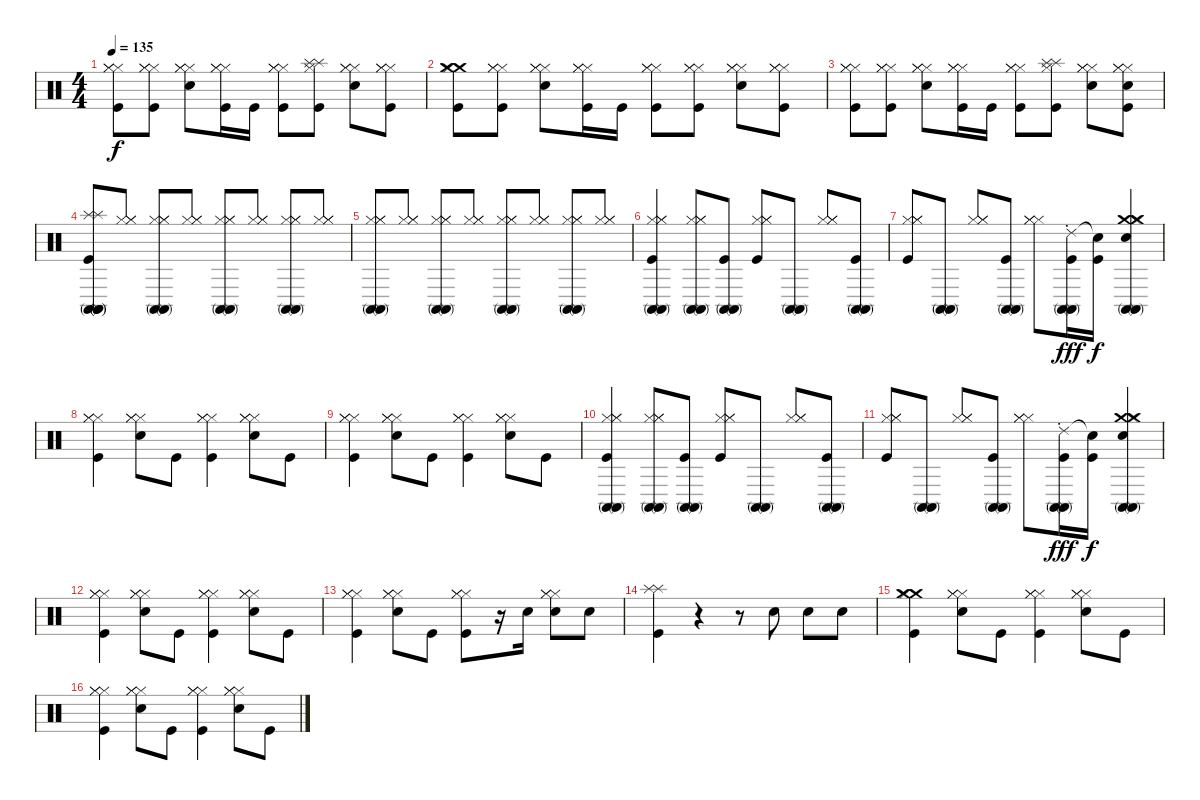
\track "" {instrument percussion}
\staff {score}
\articulation defaults
\ts (4 4)
\tempo 135
\clef neutral
\ks c
("Hi-Hat (closed)" "Hi-Hat (closed)" "Hi-Hat (closed)" "Kick (hit)").8{dy f} ("Hi-Hat (closed)" "Hi-Hat (closed)" "Hi-Hat (closed)" "Kick (hit)").8 ("Hi-Hat (closed)" "Hi-Hat (closed)" "Hi-Hat (closed)" "Metronome (bell)").8 ("Hi-Hat (closed)" "Hi-Hat (closed)" "Hi-Hat (closed)" "Kick (hit)").16 "Kick (hit)".16 ("Hi-Hat (closed)" "Hi-Hat (closed)" "Hi-Hat (closed)" "Kick (hit)").8 ("Splash (hit)" "Splash (hit)" "Hi-Hat (closed)" "Kick (hit)").8 ("Hi-Hat (closed)" "Hi-Hat (closed)" "Hi-Hat (closed)" "Metronome (bell)").8 ("Hi-Hat (closed)" "Hi-Hat (closed)" "Hi-Hat (closed)" "Kick (hit)").8 |
("Crash medium (hit)" "Crash medium (hit)" "Hi-Hat (closed)" "Kick (hit)").8 ("Hi-Hat (closed)" "Hi-Hat (closed)" "Hi-Hat (closed)" "Kick (hit)").8 ("Hi-Hat (closed)" "Hi-Hat (closed)" "Hi-Hat (closed)" "Metronome (bell)").8 ("Hi-Hat (closed)" "Hi-Hat (closed)" "Hi-Hat (closed)" "Kick (hit)").16 "Kick (hit)".16 ("Hi-Hat (closed)" "Hi-Hat (closed)" "Hi-Hat (closed)" "Kick (hit)").8 ("Hi-Hat (closed)" "Hi-Hat (closed)" "Hi-Hat (closed)" "Kick (hit)").8 ("Hi-Hat (closed)" "Hi-Hat (closed)" "Hi-Hat (closed)" "Metronome (bell)").8 ("Hi-Hat (closed)" "Hi-Hat (closed)" "Hi-Hat (closed)" "Kick (hit)").8 |
("Hi-Hat (closed)" "Hi-Hat (closed)" "Hi-Hat (closed)" "Kick (hit)").8 ("Hi-Hat (closed)" "Hi-Hat (closed)" "Hi-Hat (closed)" "Kick (hit)").8 ("Hi-Hat (closed)" "Hi-Hat (closed)" "Hi-Hat (closed)" "Metronome (bell)").8 ("Hi-Hat (closed)" "Hi-Hat (closed)" "Hi-Hat (closed)" "Kick (hit)").16 "Kick (hit)".16 ("Hi-Hat (closed)" "Hi-Hat (closed)" "Hi-Hat (closed)" "Kick (hit)").8 ("Splash (hit)" "Splash (hit)" "Hi-Hat (closed)" "Kick (hit)").8 ("Hi-Hat (closed)" "Hi-Hat (closed)" "Hi-Hat (closed)" "Metronome (bell)").8 ("Hi-Hat (closed)" "Hi-Hat (closed)" "Hi-Hat (closed)" "Metronome (bell)" "Kick (hit)").8 |
("Splash (hit)" "Splash (hit)" "Conga high (mute)" "Conga high (mute)" "Conga high (mute)" "Kick (hit)").8 ("Hi-Hat (closed)" "Hi-Hat (closed)" "Hi-Hat (closed)").8 ("Hi-Hat (closed)" "Hi-Hat (closed)" "Hi-Hat (closed)" "Conga high (mute)" "Conga high (mute)").8 ("Hi-Hat (closed)" "Hi-Hat (closed)" "Hi-Hat (closed)").8 ("Hi-Hat (closed)" "Hi-Hat (closed)" "Hi-Hat (closed)" "Conga high (mute)" "Conga high (mute)").8 ("Hi-Hat (closed)" "Hi-Hat (closed)" "Hi-Hat (closed)").8 ("Hi-Hat (closed)" "Hi-Hat (closed)" "Hi-Hat (closed)" "Conga high (mute)" "Conga high (mute)").8 ("Hi-Hat (closed)" "Hi-Hat (closed)" "Hi-Hat (closed)").8 |
("Hi-Hat (closed)" "Hi-Hat (closed)" "Hi-Hat (closed)" "Conga high (mute)" "Conga high (mute)").8 ("Hi-Hat (closed)" "Hi-Hat (closed)" "Hi-Hat (closed)").8 ("Hi-Hat (closed)" "Hi-Hat (closed)" "Hi-Hat (closed)" "Conga high (mute)" "Conga high (mute)").8 ("Hi-Hat (closed)" "Hi-Hat (closed)" "Hi-Hat (closed)").8 ("Hi-Hat (closed)" "Hi-Hat (closed)" "Hi-Hat (closed)" "Conga high (mute)" "Conga high (mute)").8 ("Hi-Hat (closed)" "Hi-Hat (closed)" "Hi-Hat (closed)").8 ("Hi-Hat (closed)" "Hi-Hat (closed)" "Hi-Hat (closed)" "Conga high (mute)" "Conga high (mute)").8 ("Hi-Hat (closed)" "Hi-Hat (closed)" "Hi-Hat (closed)").8 |
("Hi-Hat (closed)" "Hi-Hat (closed)" "Hi-Hat (closed)" "Conga high (mute)" "Conga high (mute)" "Kick (hit)").4 ("Hi-Hat (closed)" "Hi-Hat (closed)" "Hi-Hat (closed)" "Conga high (mute)" "Conga high (mute)").8 ("Conga high (mute)" "Conga high (mute)" "Kick (hit)").8 ("Hi-Hat (closed)" "Hi-Hat (closed)" "Hi-Hat (closed)" "Kick (hit)").8 ("Conga high (mute)" "Conga high (mute)").8 ("Hi-Hat (closed)" "Hi-Hat (closed)" "Hi-Hat (closed)").8 ("Conga high (mute)" "Conga high (mute)" "Kick (hit)").8 |
("Hi-Hat (closed)" "Hi-Hat (closed)" "Hi-Hat (closed)" "Kick (hit)").8 ("Conga high (mute)" "Conga high (mute)").8 ("Hi-Hat (closed)" "Hi-Hat (closed)" "Hi-Hat (closed)").8 ("Conga high (mute)" "Conga high (mute)" "Kick (hit)").8 ("Hi-Hat (closed)" "Hi-Hat (closed)" "Hi-Hat (closed)").8 ("Ride (choke) 2" "Conga high (mute)" "Conga high (mute)" "Kick (hit)").16{dy fff} ("Snare (hit)"{t} "Kick (hit)").16{dy f} ("Crash medium (hit)" "Crash medium (hit)" "Hi-Hat (closed)" "Metronome (bell)" "Conga high (mute)" "Conga high (mute)").4 |
("Hi-Hat (closed)" "Hi-Hat (closed)" "Hi-Hat (closed)" "Kick (hit)").4 ("Hi-Hat (closed)" "Hi-Hat (closed)" "Hi-Hat (closed)" "Metronome (bell)").8 "Kick (hit)".8 ("Hi-Hat (closed)" "Hi-Hat (closed)" "Hi-Hat (closed)" "Kick (hit)").4 ("Hi-Hat (closed)" "Hi-Hat (closed)" "Hi-Hat (closed)" "Metronome (bell)").8 "Kick (hit)".8 |
("Hi-Hat (closed)" "Hi-Hat (closed)" "Hi-Hat (closed)" "Kick (hit)").4 ("Hi-Hat (closed)" "Hi-Hat (closed)" "Hi-Hat (closed)" "Metronome (bell)").8 "Kick (hit)".8 ("Hi-Hat (closed)" "Hi-Hat (closed)" "Hi-Hat (closed)" "Kick (hit)").4 ("Hi-Hat (closed)" "Hi-Hat (closed)" "Hi-Hat (closed)" "Metronome (bell)").8 "Kick (hit)".8 |
("Hi-Hat (closed)" "Hi-Hat (closed)" "Hi-Hat (closed)" "Conga high (mute)" "Conga high (mute)" "Kick (hit)").4 ("Hi-Hat (closed)" "Hi-Hat (closed)" "Hi-Hat (closed)" "Conga high (mute)" "Conga high (mute)").8 ("Conga high (mute)" "Conga high (mute)" "Kick (hit)").8 ("Hi-Hat (closed)" "Hi-Hat (closed)" "Hi-Hat (closed)" "Kick (hit)").8 ("Conga high (mute)" "Conga high (mute)").8 ("Hi-Hat (closed)" "Hi-Hat (closed)" "Hi-Hat (closed)").8 ("Conga high (mute)" "Conga high (mute)" "Kick (hit)").8 |
("Hi-Hat (closed)" "Hi-Hat (closed)" "Hi-Hat (closed)" "Kick (hit)").8 ("Conga high (mute)" "Conga high (mute)").8 ("Hi-Hat (closed)" "Hi-Hat (closed)" "Hi-Hat (closed)").8 ("Conga high (mute)" "Conga high (mute)" "Kick (hit)").8 ("Hi-Hat (closed)" "Hi-Hat (closed)" "Hi-Hat (closed)").8 ("Ride (choke) 2" "Conga high (mute)" "Conga high (mute)" "Kick (hit)").16{dy fff} ("Snare (hit)"{t} "Kick (hit)").16{dy f} ("Crash medium (hit)" "Crash medium (hit)" "Hi-Hat (closed)" "Metronome (bell)" "Conga high (mute)" "Conga high (mute)").4 |
("Hi-Hat (closed)" "Hi-Hat (closed)" "Hi-Hat (closed)" "Kick (hit)").4 ("Hi-Hat (closed)" "Hi-Hat (closed)" "Hi-Hat (closed)" "Metronome (bell)").8 "Kick (hit)".8 ("Hi-Hat (closed)" "Hi-Hat (closed)" "Hi-Hat (closed)" "Kick (hit)").4 ("Hi-Hat (closed)" "Hi-Hat (closed)" "Hi-Hat (closed)" "Metronome (bell)").8 "Kick (hit)".8 |
("Hi-Hat (closed)" "Hi-Hat (closed)" "Hi-Hat (closed)" "Kick (hit)").4 ("Hi-Hat (closed)" "Hi-Hat (closed)" "Hi-Hat (closed)" "Metronome (bell)").8 "Kick (hit)".8 ("Hi-Hat (closed)" "Hi-Hat (closed)" "Hi-Hat (closed)" "Kick (hit)").8 r.16 "Metronome (bell)".16 ("Hi-Hat (closed)" "Hi-Hat (closed)" "Hi-Hat (closed)" "Metronome (bell)").8 "Metronome (bell)".8 |
("Splash (hit)" "Splash (hit)" "Kick (hit)").4 r.4 r.8 "Metronome (bell)".8 "Metronome (bell)".8 "Metronome (bell)".8 |
("Crash medium (hit)" "Crash medium (hit)" "Hi-Hat (closed)" "Kick (hit)").4 ("Hi-Hat (closed)" "Hi-Hat (closed)" "Hi-Hat (closed)" "Metronome (bell)").8 "Kick (hit)".8 ("Hi-Hat (closed)" "Hi-Hat (closed)" "Hi-Hat (closed)" "Kick (hit)").4 ("Hi-Hat (closed)" "Hi-Hat (closed)" "Hi-Hat (closed)" "Metronome (bell)").8 "Kick (hit)".8 |
("Hi-Hat (closed)" "Hi-Hat (closed)" "Hi-Hat (closed)" "Kick (hit)").4 ("Hi-Hat (closed)" "Hi-Hat (closed)" "Hi-Hat (closed)" "Metronome (bell)").8 "Kick (hit)".8 ("Hi-Hat (closed)" "Hi-Hat (closed)" "Hi-Hat (closed)" "Kick (hit)").4 ("Hi-Hat (closed)" "Hi-Hat (closed)" "Hi-Hat (closed)" "Metronome (bell)").8 "Kick (hit)".8
